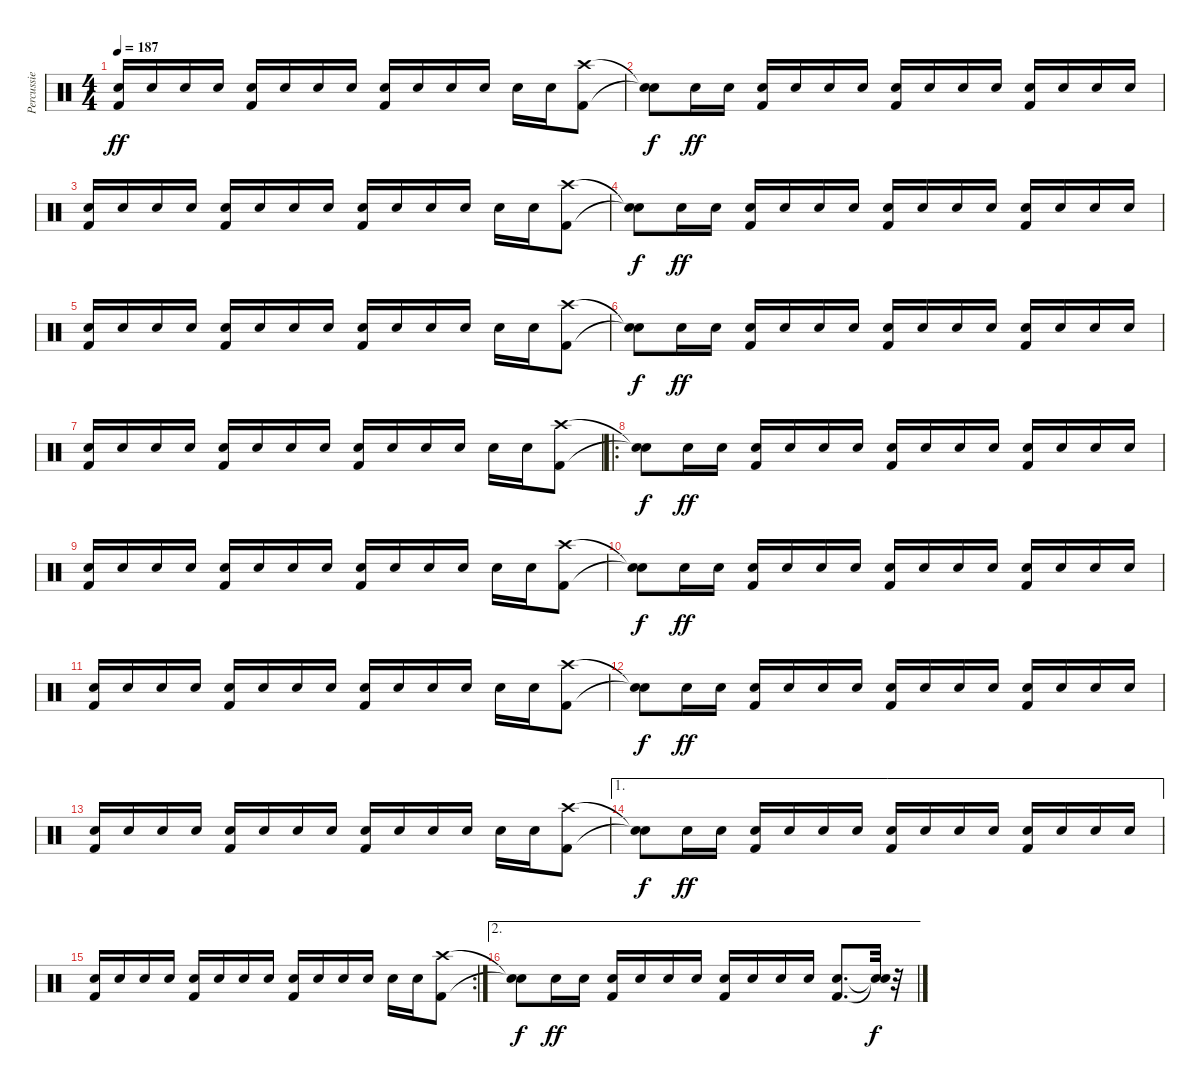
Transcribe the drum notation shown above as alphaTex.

\track ("Percussie" "Percussie") {instrument percussion}
\staff {score}
\articulation defaults
\ts (4 4)
\tempo 187
\clef neutral
\ks c
("Kick (hit) 2" "Snare (hit) 2").16{dy ff volume 16} "Snare (hit) 2".16{volume 5} "Snare (hit) 2".16 "Snare (hit) 2".16 ("Kick (hit) 2" "Snare (hit) 2").16{volume 16} "Snare (hit) 2".16{volume 5} "Snare (hit) 2".16 "Snare (hit) 2".16 ("Kick (hit) 2" "Snare (hit) 2").16{volume 16} "Snare (hit) 2".16{volume 5} "Snare (hit) 2".16 "Snare (hit) 2".16 "Snare (hit) 2".16{volume 16} "Snare (hit) 2".16 ("Kick (hit) 2" "Crash high (hit)").8 |
("Snare (hit)"{t} "Snare (hit)"{t}).8{dy f} "Snare (hit) 2".16{dy ff volume 5} "Snare (hit) 2".16 ("Kick (hit) 2" "Snare (hit) 2").16{volume 16} "Snare (hit) 2".16{volume 5} "Snare (hit) 2".16 "Snare (hit) 2".16 ("Kick (hit) 2" "Snare (hit) 2").16{volume 16} "Snare (hit) 2".16{volume 5} "Snare (hit) 2".16 "Snare (hit) 2".16 ("Kick (hit) 2" "Snare (hit) 2").16{volume 16} "Snare (hit) 2".16{volume 5} "Snare (hit) 2".16 "Snare (hit) 2".16 |
("Kick (hit) 2" "Snare (hit) 2").16{volume 16} "Snare (hit) 2".16{volume 5} "Snare (hit) 2".16 "Snare (hit) 2".16 ("Kick (hit) 2" "Snare (hit) 2").16{volume 16} "Snare (hit) 2".16{volume 5} "Snare (hit) 2".16 "Snare (hit) 2".16 ("Kick (hit) 2" "Snare (hit) 2").16{volume 16} "Snare (hit) 2".16{volume 5} "Snare (hit) 2".16 "Snare (hit) 2".16 "Snare (hit) 2".16{volume 16} "Snare (hit) 2".16 ("Kick (hit) 2" "Crash high (hit)").8 |
("Snare (hit)"{t} "Snare (hit)"{t}).8{dy f} "Snare (hit) 2".16{dy ff volume 5} "Snare (hit) 2".16 ("Kick (hit) 2" "Snare (hit) 2").16{volume 16} "Snare (hit) 2".16{volume 5} "Snare (hit) 2".16 "Snare (hit) 2".16 ("Kick (hit) 2" "Snare (hit) 2").16{volume 16} "Snare (hit) 2".16{volume 5} "Snare (hit) 2".16 "Snare (hit) 2".16 ("Kick (hit) 2" "Snare (hit) 2").16{volume 16} "Snare (hit) 2".16{volume 5} "Snare (hit) 2".16 "Snare (hit) 2".16 |
("Kick (hit) 2" "Snare (hit) 2").16{volume 16} "Snare (hit) 2".16{volume 5} "Snare (hit) 2".16 "Snare (hit) 2".16 ("Kick (hit) 2" "Snare (hit) 2").16{volume 16} "Snare (hit) 2".16{volume 5} "Snare (hit) 2".16 "Snare (hit) 2".16 ("Kick (hit) 2" "Snare (hit) 2").16{volume 16} "Snare (hit) 2".16{volume 5} "Snare (hit) 2".16 "Snare (hit) 2".16 "Snare (hit) 2".16{volume 16} "Snare (hit) 2".16 ("Kick (hit) 2" "Crash high (hit)").8 |
("Snare (hit)"{t} "Snare (hit)"{t}).8{dy f} "Snare (hit) 2".16{dy ff volume 5} "Snare (hit) 2".16 ("Kick (hit) 2" "Snare (hit) 2").16{volume 16} "Snare (hit) 2".16{volume 5} "Snare (hit) 2".16 "Snare (hit) 2".16 ("Kick (hit) 2" "Snare (hit) 2").16{volume 16} "Snare (hit) 2".16{volume 5} "Snare (hit) 2".16 "Snare (hit) 2".16 ("Kick (hit) 2" "Snare (hit) 2").16{volume 16} "Snare (hit) 2".16{volume 5} "Snare (hit) 2".16 "Snare (hit) 2".16 |
("Kick (hit) 2" "Snare (hit) 2").16{volume 16} "Snare (hit) 2".16{volume 5} "Snare (hit) 2".16 "Snare (hit) 2".16 ("Kick (hit) 2" "Snare (hit) 2").16{volume 16} "Snare (hit) 2".16{volume 5} "Snare (hit) 2".16 "Snare (hit) 2".16 ("Kick (hit) 2" "Snare (hit) 2").16{volume 16} "Snare (hit) 2".16{volume 5} "Snare (hit) 2".16 "Snare (hit) 2".16 "Snare (hit) 2".16{volume 16} "Snare (hit) 2".16 ("Kick (hit) 2" "Crash high (hit)").8 |
\ro
("Snare (hit)"{t} "Snare (hit)"{t}).8{dy f} "Snare (hit) 2".16{dy ff volume 5} "Snare (hit) 2".16 ("Kick (hit) 2" "Snare (hit) 2").16{volume 16} "Snare (hit) 2".16{volume 5} "Snare (hit) 2".16 "Snare (hit) 2".16 ("Kick (hit) 2" "Snare (hit) 2").16{volume 16} "Snare (hit) 2".16{volume 5} "Snare (hit) 2".16 "Snare (hit) 2".16 ("Kick (hit) 2" "Snare (hit) 2").16{volume 16} "Snare (hit) 2".16{volume 5} "Snare (hit) 2".16 "Snare (hit) 2".16 |
("Kick (hit) 2" "Snare (hit) 2").16{volume 16} "Snare (hit) 2".16{volume 5} "Snare (hit) 2".16 "Snare (hit) 2".16 ("Kick (hit) 2" "Snare (hit) 2").16{volume 16} "Snare (hit) 2".16{volume 5} "Snare (hit) 2".16 "Snare (hit) 2".16 ("Kick (hit) 2" "Snare (hit) 2").16{volume 16} "Snare (hit) 2".16{volume 5} "Snare (hit) 2".16 "Snare (hit) 2".16 "Snare (hit) 2".16{volume 16} "Snare (hit) 2".16 ("Kick (hit) 2" "Crash high (hit)").8 |
("Snare (hit)"{t} "Snare (hit)"{t}).8{dy f} "Snare (hit) 2".16{dy ff volume 5} "Snare (hit) 2".16 ("Kick (hit) 2" "Snare (hit) 2").16{volume 16} "Snare (hit) 2".16{volume 5} "Snare (hit) 2".16 "Snare (hit) 2".16 ("Kick (hit) 2" "Snare (hit) 2").16{volume 16} "Snare (hit) 2".16{volume 5} "Snare (hit) 2".16 "Snare (hit) 2".16 ("Kick (hit) 2" "Snare (hit) 2").16{volume 16} "Snare (hit) 2".16{volume 5} "Snare (hit) 2".16 "Snare (hit) 2".16 |
("Kick (hit) 2" "Snare (hit) 2").16{volume 16} "Snare (hit) 2".16{volume 5} "Snare (hit) 2".16 "Snare (hit) 2".16 ("Kick (hit) 2" "Snare (hit) 2").16{volume 16} "Snare (hit) 2".16{volume 5} "Snare (hit) 2".16 "Snare (hit) 2".16 ("Kick (hit) 2" "Snare (hit) 2").16{volume 16} "Snare (hit) 2".16{volume 5} "Snare (hit) 2".16 "Snare (hit) 2".16 "Snare (hit) 2".16{volume 16} "Snare (hit) 2".16 ("Kick (hit) 2" "Crash high (hit)").8 |
("Snare (hit)"{t} "Snare (hit)"{t}).8{dy f} "Snare (hit) 2".16{dy ff volume 5} "Snare (hit) 2".16 ("Kick (hit) 2" "Snare (hit) 2").16{volume 16} "Snare (hit) 2".16{volume 5} "Snare (hit) 2".16 "Snare (hit) 2".16 ("Kick (hit) 2" "Snare (hit) 2").16{volume 16} "Snare (hit) 2".16{volume 5} "Snare (hit) 2".16 "Snare (hit) 2".16 ("Kick (hit) 2" "Snare (hit) 2").16{volume 16} "Snare (hit) 2".16{volume 5} "Snare (hit) 2".16 "Snare (hit) 2".16 |
("Kick (hit) 2" "Snare (hit) 2").16{volume 16} "Snare (hit) 2".16{volume 5} "Snare (hit) 2".16 "Snare (hit) 2".16 ("Kick (hit) 2" "Snare (hit) 2").16{volume 16} "Snare (hit) 2".16{volume 5} "Snare (hit) 2".16 "Snare (hit) 2".16 ("Kick (hit) 2" "Snare (hit) 2").16{volume 16} "Snare (hit) 2".16{volume 5} "Snare (hit) 2".16 "Snare (hit) 2".16 "Snare (hit) 2".16{volume 16} "Snare (hit) 2".16 ("Kick (hit) 2" "Crash high (hit)").8 |
\ae 1
("Snare (hit)"{t} "Snare (hit)"{t}).8{dy f} "Snare (hit) 2".16{dy ff volume 5} "Snare (hit) 2".16 ("Kick (hit) 2" "Snare (hit) 2").16{volume 16} "Snare (hit) 2".16{volume 5} "Snare (hit) 2".16 "Snare (hit) 2".16 ("Kick (hit) 2" "Snare (hit) 2").16{volume 16} "Snare (hit) 2".16{volume 5} "Snare (hit) 2".16 "Snare (hit) 2".16 ("Kick (hit) 2" "Snare (hit) 2").16{volume 16} "Snare (hit) 2".16{volume 5} "Snare (hit) 2".16 "Snare (hit) 2".16 |
\rc 2
("Kick (hit) 2" "Snare (hit) 2").16{volume 16} "Snare (hit) 2".16{volume 5} "Snare (hit) 2".16 "Snare (hit) 2".16 ("Kick (hit) 2" "Snare (hit) 2").16{volume 16} "Snare (hit) 2".16{volume 5} "Snare (hit) 2".16 "Snare (hit) 2".16 ("Kick (hit) 2" "Snare (hit) 2").16{volume 16} "Snare (hit) 2".16{volume 5} "Snare (hit) 2".16 "Snare (hit) 2".16 "Snare (hit) 2".16{volume 16} "Snare (hit) 2".16 ("Kick (hit) 2" "Crash high (hit)").8 |
\ae 2
("Snare (hit)"{t} "Snare (hit)"{t}).8{dy f} "Snare (hit) 2".16{dy ff volume 5} "Snare (hit) 2".16 ("Kick (hit) 2" "Snare (hit) 2").16{volume 16} "Snare (hit) 2".16{volume 5} "Snare (hit) 2".16 "Snare (hit) 2".16 ("Kick (hit) 2" "Snare (hit) 2").16{volume 16} "Snare (hit) 2".16{volume 5} "Snare (hit) 2".16 "Snare (hit) 2".16 ("Kick (hit) 2" "Snare (hit) 2").8{d volume 16} ("Snare (hit)"{t} "Snare (hit)"{t}).32{dy f} r.32
